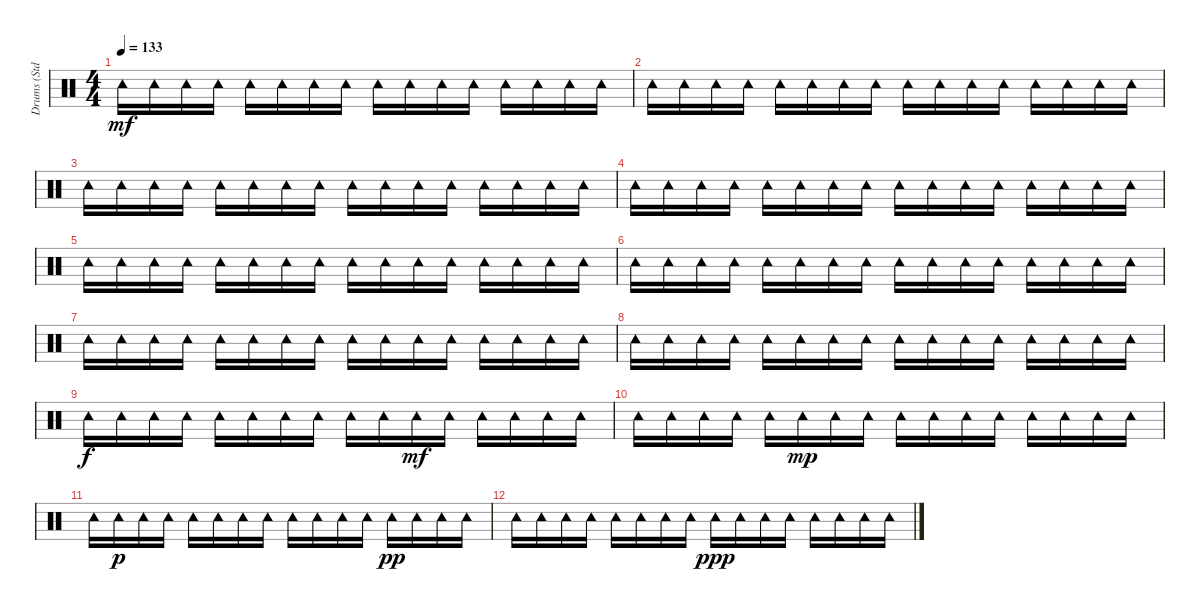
\track ("Drums (Std.)" "Drums (Std") {instrument percussion}
\staff {score}
\articulation defaults
\ts (4 4)
\tempo 133
\clef neutral
\ks c "Tambourine (hit)".16{dy mf} "Tambourine (hit)".16 "Tambourine (hit)".16 "Tambourine (hit)".16 "Tambourine (hit)".16 "Tambourine (hit)".16 "Tambourine (hit)".16 "Tambourine (hit)".16 "Tambourine (hit)".16 "Tambourine (hit)".16 "Tambourine (hit)".16 "Tambourine (hit)".16 "Tambourine (hit)".16 "Tambourine (hit)".16 "Tambourine (hit)".16 "Tambourine (hit)".16
|
"Tambourine (hit)".16 "Tambourine (hit)".16 "Tambourine (hit)".16 "Tambourine (hit)".16 "Tambourine (hit)".16 "Tambourine (hit)".16 "Tambourine (hit)".16 "Tambourine (hit)".16 "Tambourine (hit)".16 "Tambourine (hit)".16 "Tambourine (hit)".16 "Tambourine (hit)".16 "Tambourine (hit)".16 "Tambourine (hit)".16 "Tambourine (hit)".16 "Tambourine (hit)".16 |
"Tambourine (hit)".16 "Tambourine (hit)".16 "Tambourine (hit)".16 "Tambourine (hit)".16 "Tambourine (hit)".16 "Tambourine (hit)".16 "Tambourine (hit)".16 "Tambourine (hit)".16 "Tambourine (hit)".16 "Tambourine (hit)".16 "Tambourine (hit)".16 "Tambourine (hit)".16 "Tambourine (hit)".16 "Tambourine (hit)".16 "Tambourine (hit)".16 "Tambourine (hit)".16 |
"Tambourine (hit)".16 "Tambourine (hit)".16 "Tambourine (hit)".16 "Tambourine (hit)".16 "Tambourine (hit)".16 "Tambourine (hit)".16 "Tambourine (hit)".16 "Tambourine (hit)".16 "Tambourine (hit)".16 "Tambourine (hit)".16 "Tambourine (hit)".16 "Tambourine (hit)".16 "Tambourine (hit)".16 "Tambourine (hit)".16 "Tambourine (hit)".16 "Tambourine (hit)".16 |
"Tambourine (hit)".16 "Tambourine (hit)".16 "Tambourine (hit)".16 "Tambourine (hit)".16 "Tambourine (hit)".16 "Tambourine (hit)".16 "Tambourine (hit)".16 "Tambourine (hit)".16 "Tambourine (hit)".16 "Tambourine (hit)".16 "Tambourine (hit)".16 "Tambourine (hit)".16 "Tambourine (hit)".16 "Tambourine (hit)".16 "Tambourine (hit)".16 "Tambourine (hit)".16 |
"Tambourine (hit)".16 "Tambourine (hit)".16 "Tambourine (hit)".16 "Tambourine (hit)".16 "Tambourine (hit)".16 "Tambourine (hit)".16 "Tambourine (hit)".16 "Tambourine (hit)".16 "Tambourine (hit)".16 "Tambourine (hit)".16 "Tambourine (hit)".16 "Tambourine (hit)".16 "Tambourine (hit)".16 "Tambourine (hit)".16 "Tambourine (hit)".16 "Tambourine (hit)".16 |
"Tambourine (hit)".16 "Tambourine (hit)".16 "Tambourine (hit)".16 "Tambourine (hit)".16 "Tambourine (hit)".16 "Tambourine (hit)".16 "Tambourine (hit)".16 "Tambourine (hit)".16 "Tambourine (hit)".16 "Tambourine (hit)".16 "Tambourine (hit)".16 "Tambourine (hit)".16 "Tambourine (hit)".16 "Tambourine (hit)".16 "Tambourine (hit)".16 "Tambourine (hit)".16 |
"Tambourine (hit)".16 "Tambourine (hit)".16 "Tambourine (hit)".16 "Tambourine (hit)".16 "Tambourine (hit)".16 "Tambourine (hit)".16 "Tambourine (hit)".16 "Tambourine (hit)".16 "Tambourine (hit)".16 "Tambourine (hit)".16 "Tambourine (hit)".16 "Tambourine (hit)".16 "Tambourine (hit)".16 "Tambourine (hit)".16 "Tambourine (hit)".16 "Tambourine (hit)".16 |
"Tambourine (hit)".16{dy f} "Tambourine (hit)".16 "Tambourine (hit)".16 "Tambourine (hit)".16 "Tambourine (hit)".16 "Tambourine (hit)".16 "Tambourine (hit)".16 "Tambourine (hit)".16 "Tambourine (hit)".16 "Tambourine (hit)".16 "Tambourine (hit)".16{dy mf} "Tambourine (hit)".16 "Tambourine (hit)".16 "Tambourine (hit)".16 "Tambourine (hit)".16 "Tambourine (hit)".16 |
"Tambourine (hit)".16 "Tambourine (hit)".16 "Tambourine (hit)".16 "Tambourine (hit)".16 "Tambourine (hit)".16 "Tambourine (hit)".16{dy mp} "Tambourine (hit)".16 "Tambourine (hit)".16 "Tambourine (hit)".16 "Tambourine (hit)".16 "Tambourine (hit)".16 "Tambourine (hit)".16 "Tambourine (hit)".16 "Tambourine (hit)".16 "Tambourine (hit)".16 "Tambourine (hit)".16 |
"Tambourine (hit)".16 "Tambourine (hit)".16{dy p} "Tambourine (hit)".16 "Tambourine (hit)".16 "Tambourine (hit)".16 "Tambourine (hit)".16 "Tambourine (hit)".16 "Tambourine (hit)".16 "Tambourine (hit)".16 "Tambourine (hit)".16 "Tambourine (hit)".16 "Tambourine (hit)".16 "Tambourine (hit)".16{dy pp} "Tambourine (hit)".16 "Tambourine (hit)".16 "Tambourine (hit)".16 |
"Tambourine (hit)".16 "Tambourine (hit)".16 "Tambourine (hit)".16 "Tambourine (hit)".16 "Tambourine (hit)".16 "Tambourine (hit)".16 "Tambourine (hit)".16 "Tambourine (hit)".16 "Tambourine (hit)".16{dy ppp} "Tambourine (hit)".16 "Tambourine (hit)".16 "Tambourine (hit)".16 "Tambourine (hit)".16 "Tambourine (hit)".16 "Tambourine (hit)".16 "Tambourine (hit)".16
